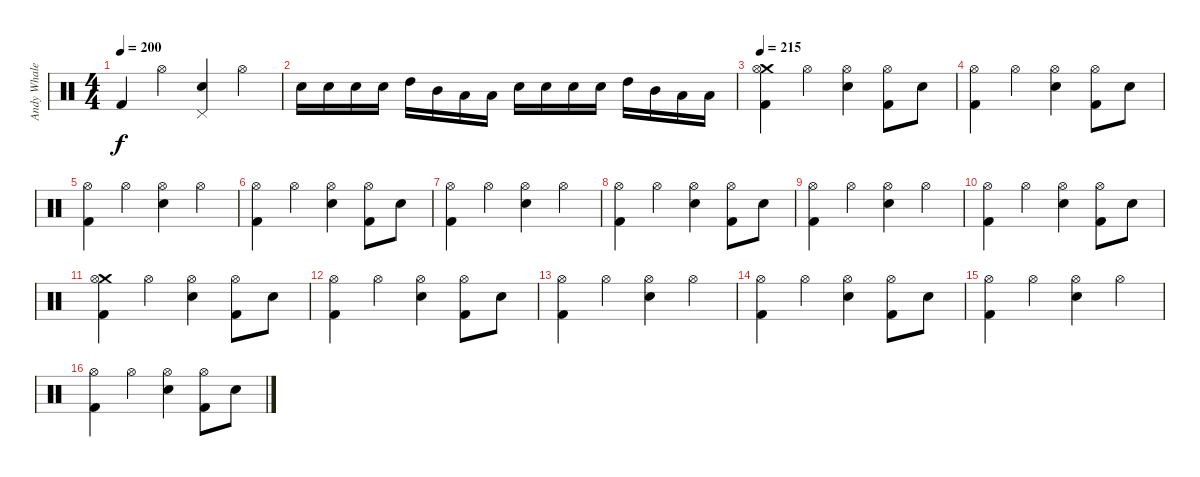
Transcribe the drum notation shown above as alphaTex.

\track ("Andy Whale" "Andy Whale") {instrument percussion}
\staff {score}
\articulation defaults
\ts (4 4)
\tempo 200
\clef neutral
\ks c "Kick (hit) 2".4{dy f} "Hi-Hat (open)".4
("Pedal Hi-Hat (hit)" "Snare (hit) 2").4 "Hi-Hat (open)".4 |
"Snare (hit) 2".16 "Snare (hit) 2".16 "Snare (hit) 2".16 "Snare (hit) 2".16 "High Tom (hit)".16 "Mid Tom (hit)".16 "Low Tom (hit)".16 "Low Tom (hit)".16 "Snare (hit) 2".16 "Snare (hit) 2".16 "Snare (hit) 2".16 "Snare (hit) 2".16 "High Tom (hit)".16 "Mid Tom (hit)".16 "Low Tom (hit)".16 "Low Tom (hit)".16 |
\tempo 215
("Crash medium (hit)" "Hi-Hat (open)" "Kick (hit) 2").4 "Hi-Hat (open)".4 ("Hi-Hat (open)" "Snare (hit) 2").4 ("Hi-Hat (open)" "Kick (hit) 2").8 "Snare (hit) 2".8 |
("Hi-Hat (open)" "Kick (hit) 2").4 "Hi-Hat (open)".4 ("Hi-Hat (open)" "Snare (hit) 2").4 ("Hi-Hat (open)" "Kick (hit) 2").8 "Snare (hit) 2".8 |
("Hi-Hat (open)" "Kick (hit) 2").4 "Hi-Hat (open)".4 ("Hi-Hat (open)" "Snare (hit) 2").4 "Hi-Hat (open)".4 |
("Hi-Hat (open)" "Kick (hit) 2").4 "Hi-Hat (open)".4 ("Hi-Hat (open)" "Snare (hit) 2").4 ("Hi-Hat (open)" "Kick (hit) 2").8 "Snare (hit) 2".8 |
("Hi-Hat (open)" "Kick (hit) 2").4 "Hi-Hat (open)".4 ("Hi-Hat (open)" "Snare (hit) 2").4 "Hi-Hat (open)".4 |
("Hi-Hat (open)" "Kick (hit) 2").4 "Hi-Hat (open)".4 ("Hi-Hat (open)" "Snare (hit) 2").4 ("Hi-Hat (open)" "Kick (hit) 2").8 "Snare (hit) 2".8 |
("Hi-Hat (open)" "Kick (hit) 2").4 "Hi-Hat (open)".4 ("Hi-Hat (open)" "Snare (hit) 2").4 "Hi-Hat (open)".4 |
("Hi-Hat (open)" "Kick (hit) 2").4 "Hi-Hat (open)".4 ("Hi-Hat (open)" "Snare (hit) 2").4 ("Hi-Hat (open)" "Kick (hit) 2").8 "Snare (hit) 2".8 |
("Crash medium (hit)" "Hi-Hat (open)" "Kick (hit) 2").4 "Hi-Hat (open)".4 ("Hi-Hat (open)" "Snare (hit) 2").4 ("Hi-Hat (open)" "Kick (hit) 2").8 "Snare (hit) 2".8 |
("Hi-Hat (open)" "Kick (hit) 2").4 "Hi-Hat (open)".4 ("Hi-Hat (open)" "Snare (hit) 2").4 ("Hi-Hat (open)" "Kick (hit) 2").8 "Snare (hit) 2".8 |
("Hi-Hat (open)" "Kick (hit) 2").4 "Hi-Hat (open)".4 ("Hi-Hat (open)" "Snare (hit) 2").4 "Hi-Hat (open)".4 |
("Hi-Hat (open)" "Kick (hit) 2").4 "Hi-Hat (open)".4 ("Hi-Hat (open)" "Snare (hit) 2").4 ("Hi-Hat (open)" "Kick (hit) 2").8 "Snare (hit) 2".8 |
("Hi-Hat (open)" "Kick (hit) 2").4 "Hi-Hat (open)".4 ("Hi-Hat (open)" "Snare (hit) 2").4 "Hi-Hat (open)".4 |
("Hi-Hat (open)" "Kick (hit) 2").4 "Hi-Hat (open)".4 ("Hi-Hat (open)" "Snare (hit) 2").4 ("Hi-Hat (open)" "Kick (hit) 2").8 "Snare (hit) 2".8
